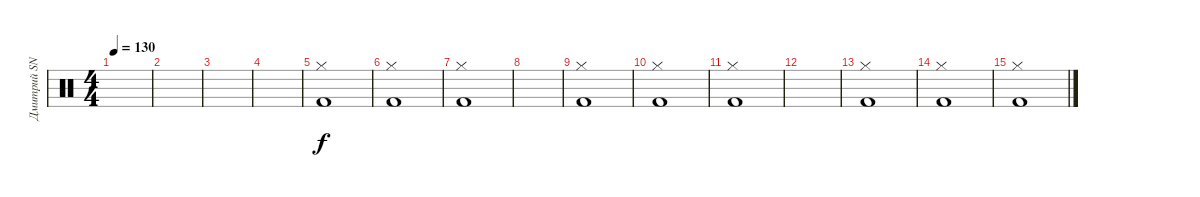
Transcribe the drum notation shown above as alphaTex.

\track ("Дмитрий SNAKE Хакимов" "Дмитрий SN") {instrument percussion}
\staff {score}
\articulation defaults
\ts (4 4)
\tempo 130
\clef neutral
\ks c
|
|
|
|
("Hi-Hat (closed)" "Kick (hit) 2").1 |
("Hi-Hat (closed)" "Kick (hit) 2").1 |
("Hi-Hat (closed)" "Kick (hit) 2").1 |
|
("Hi-Hat (closed)" "Kick (hit) 2").1 |
("Hi-Hat (closed)" "Kick (hit) 2").1 |
("Hi-Hat (closed)" "Kick (hit) 2").1 |
|
("Hi-Hat (closed)" "Kick (hit) 2").1 |
("Hi-Hat (closed)" "Kick (hit) 2").1 |
("Hi-Hat (closed)" "Kick (hit) 2").1
